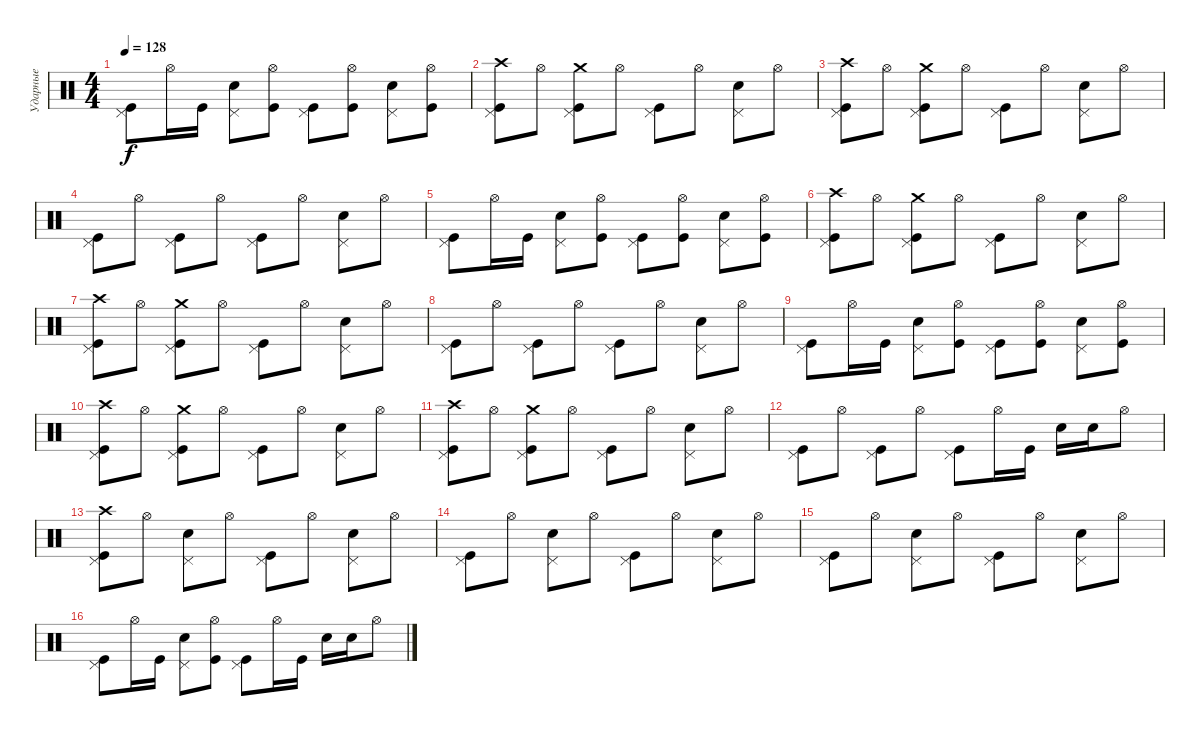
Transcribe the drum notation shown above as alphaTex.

\track ("Ударные" "Ударные") {instrument percussion}
\staff {score}
\articulation defaults
\ts (4 4)
\tempo 128
\clef neutral
\ks c
("Kick (hit)" "Pedal Hi-Hat (hit)").8{dy f} "Hi-Hat (open)".16 "Kick (hit)".16 ("Pedal Hi-Hat (hit)" "Snare (hit) 2").8 ("Kick (hit)" "Hi-Hat (open)").8 ("Kick (hit)" "Pedal Hi-Hat (hit)").8 ("Kick (hit)" "Hi-Hat (open)").8 ("Snare (hit) 2" "Pedal Hi-Hat (hit)").8 ("Kick (hit)" "Hi-Hat (open)").8 |
("Kick (hit)" "Pedal Hi-Hat (hit)" "Crash high (hit)").8 "Hi-Hat (open)".8 ("Kick (hit)" "Pedal Hi-Hat (hit)" "Crash medium (hit)").8 "Hi-Hat (open)".8 ("Kick (hit)" "Pedal Hi-Hat (hit)").8 "Hi-Hat (open)".8 ("Snare (hit) 2" "Pedal Hi-Hat (hit)").8 "Hi-Hat (open)".8 |
("Kick (hit)" "Pedal Hi-Hat (hit)" "Crash high (hit)").8 "Hi-Hat (open)".8 ("Kick (hit)" "Pedal Hi-Hat (hit)" "Crash medium (hit)").8 "Hi-Hat (open)".8 ("Kick (hit)" "Pedal Hi-Hat (hit)").8 "Hi-Hat (open)".8 ("Snare (hit) 2" "Pedal Hi-Hat (hit)").8 "Hi-Hat (open)".8 |
("Kick (hit)" "Pedal Hi-Hat (hit)").8 "Hi-Hat (open)".8 ("Kick (hit)" "Pedal Hi-Hat (hit)").8 "Hi-Hat (open)".8 ("Kick (hit)" "Pedal Hi-Hat (hit)").8 "Hi-Hat (open)".8 ("Snare (hit) 2" "Pedal Hi-Hat (hit)").8 "Hi-Hat (open)".8 |
("Kick (hit)" "Pedal Hi-Hat (hit)").8 "Hi-Hat (open)".16 "Kick (hit)".16 ("Pedal Hi-Hat (hit)" "Snare (hit) 2").8 ("Kick (hit)" "Hi-Hat (open)").8 ("Kick (hit)" "Pedal Hi-Hat (hit)").8 ("Kick (hit)" "Hi-Hat (open)").8 ("Snare (hit) 2" "Pedal Hi-Hat (hit)").8 ("Kick (hit)" "Hi-Hat (open)").8 |
("Kick (hit)" "Pedal Hi-Hat (hit)" "Crash high (hit)").8 "Hi-Hat (open)".8 ("Kick (hit)" "Pedal Hi-Hat (hit)" "Crash medium (hit)").8 "Hi-Hat (open)".8 ("Kick (hit)" "Pedal Hi-Hat (hit)").8 "Hi-Hat (open)".8 ("Snare (hit) 2" "Pedal Hi-Hat (hit)").8 "Hi-Hat (open)".8 |
("Kick (hit)" "Pedal Hi-Hat (hit)" "Crash high (hit)").8 "Hi-Hat (open)".8 ("Kick (hit)" "Pedal Hi-Hat (hit)" "Crash medium (hit)").8 "Hi-Hat (open)".8 ("Kick (hit)" "Pedal Hi-Hat (hit)").8 "Hi-Hat (open)".8 ("Snare (hit) 2" "Pedal Hi-Hat (hit)").8 "Hi-Hat (open)".8 |
("Kick (hit)" "Pedal Hi-Hat (hit)").8 "Hi-Hat (open)".8 ("Kick (hit)" "Pedal Hi-Hat (hit)").8 "Hi-Hat (open)".8 ("Kick (hit)" "Pedal Hi-Hat (hit)").8 "Hi-Hat (open)".8 ("Snare (hit) 2" "Pedal Hi-Hat (hit)").8 "Hi-Hat (open)".8 |
("Kick (hit)" "Pedal Hi-Hat (hit)").8 "Hi-Hat (open)".16 "Kick (hit)".16 ("Pedal Hi-Hat (hit)" "Snare (hit) 2").8 ("Kick (hit)" "Hi-Hat (open)").8 ("Kick (hit)" "Pedal Hi-Hat (hit)").8 ("Kick (hit)" "Hi-Hat (open)").8 ("Snare (hit) 2" "Pedal Hi-Hat (hit)").8 ("Kick (hit)" "Hi-Hat (open)").8 |
("Kick (hit)" "Pedal Hi-Hat (hit)" "Crash high (hit)").8 "Hi-Hat (open)".8 ("Kick (hit)" "Pedal Hi-Hat (hit)" "Crash medium (hit)").8 "Hi-Hat (open)".8 ("Kick (hit)" "Pedal Hi-Hat (hit)").8 "Hi-Hat (open)".8 ("Snare (hit) 2" "Pedal Hi-Hat (hit)").8 "Hi-Hat (open)".8 |
("Kick (hit)" "Pedal Hi-Hat (hit)" "Crash high (hit)").8 "Hi-Hat (open)".8 ("Kick (hit)" "Pedal Hi-Hat (hit)" "Crash medium (hit)").8 "Hi-Hat (open)".8 ("Kick (hit)" "Pedal Hi-Hat (hit)").8 "Hi-Hat (open)".8 ("Snare (hit) 2" "Pedal Hi-Hat (hit)").8 "Hi-Hat (open)".8 |
("Kick (hit)" "Pedal Hi-Hat (hit)").8 "Hi-Hat (open)".8 ("Kick (hit)" "Pedal Hi-Hat (hit)").8 "Hi-Hat (open)".8 ("Kick (hit)" "Pedal Hi-Hat (hit)").8 "Hi-Hat (open)".16 "Kick (hit)".16 "Snare (hit) 2".16 "Snare (hit) 2".16 "Hi-Hat (open)".8 |
("Kick (hit)" "Pedal Hi-Hat (hit)" "Crash high (hit)").8 "Hi-Hat (open)".8 ("Snare (hit) 2" "Pedal Hi-Hat (hit)").8 "Hi-Hat (open)".8 ("Kick (hit)" "Pedal Hi-Hat (hit)").8 "Hi-Hat (open)".8 ("Snare (hit) 2" "Pedal Hi-Hat (hit)").8 "Hi-Hat (open)".8 |
("Kick (hit)" "Pedal Hi-Hat (hit)").8 "Hi-Hat (open)".8 ("Snare (hit) 2" "Pedal Hi-Hat (hit)").8 "Hi-Hat (open)".8 ("Kick (hit)" "Pedal Hi-Hat (hit)").8 "Hi-Hat (open)".8 ("Snare (hit) 2" "Pedal Hi-Hat (hit)").8 "Hi-Hat (open)".8 |
("Kick (hit)" "Pedal Hi-Hat (hit)").8 "Hi-Hat (open)".8 ("Snare (hit) 2" "Pedal Hi-Hat (hit)").8 "Hi-Hat (open)".8 ("Kick (hit)" "Pedal Hi-Hat (hit)").8 "Hi-Hat (open)".8 ("Snare (hit) 2" "Pedal Hi-Hat (hit)").8 "Hi-Hat (open)".8 |
("Kick (hit)" "Pedal Hi-Hat (hit)").8 "Hi-Hat (open)".16 "Kick (hit)".16 ("Pedal Hi-Hat (hit)" "Snare (hit) 2").8 ("Kick (hit)" "Hi-Hat (open)").8 ("Kick (hit)" "Pedal Hi-Hat (hit)").8 "Hi-Hat (open)".16 "Kick (hit)".16 "Snare (hit) 2".16 "Snare (hit) 2".16 "Hi-Hat (open)".8
